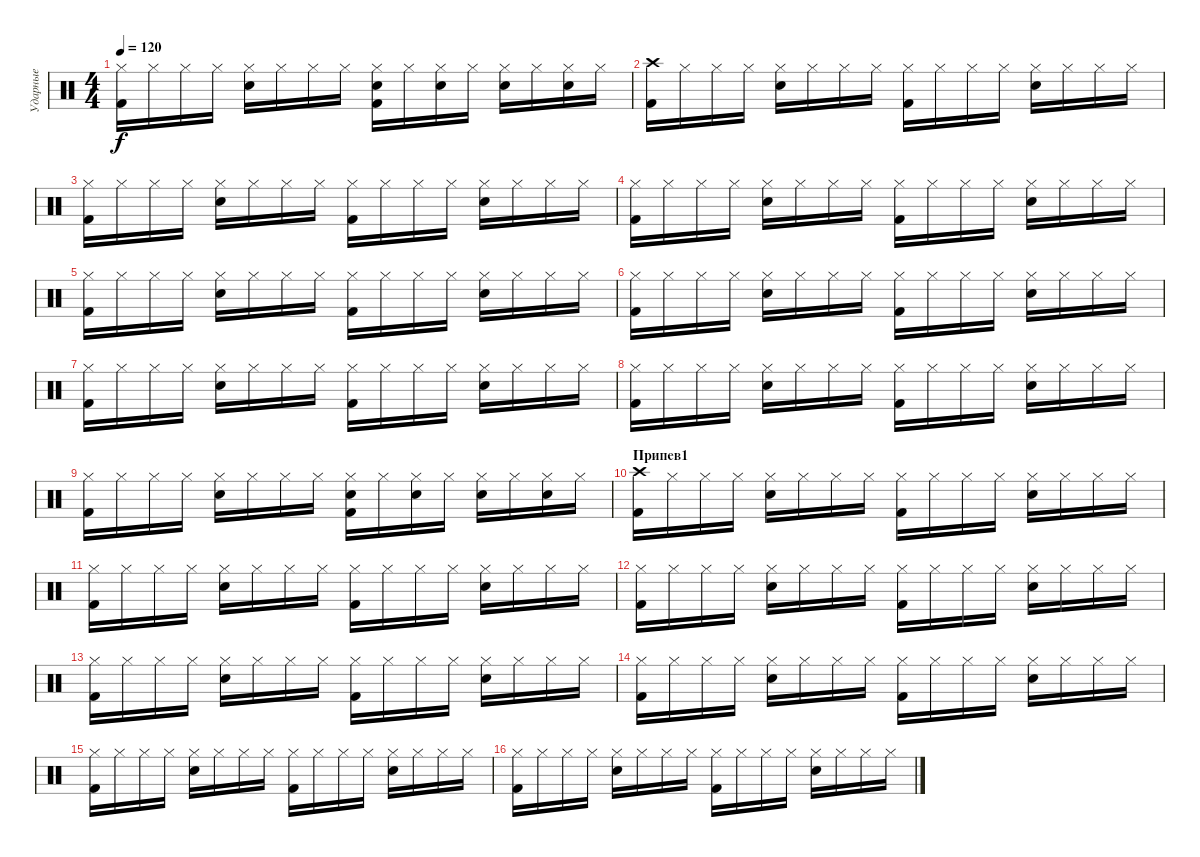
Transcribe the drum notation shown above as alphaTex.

\track ("Ударные" "Ударные") {instrument percussion}
\staff {score}
\articulation defaults
\ts (4 4)
\tempo 120
\clef neutral
\ks c
("Kick (hit) 2" "Hi-Hat (closed)").16{dy f} "Hi-Hat (closed)".16 "Hi-Hat (closed)".16 "Hi-Hat (closed)".16 ("Hi-Hat (closed)" "Snare (hit) 2").16 "Hi-Hat (closed)".16 "Hi-Hat (closed)".16 "Hi-Hat (closed)".16 ("Kick (hit) 2" "Hi-Hat (closed)" "Snare (hit) 2").16 "Hi-Hat (closed)".16 ("Hi-Hat (closed)" "Snare (hit) 2").16 "Hi-Hat (closed)".16 ("Hi-Hat (closed)" "Snare (hit) 2").16 "Hi-Hat (closed)".16 ("Hi-Hat (closed)" "Snare (hit) 2").16 "Hi-Hat (closed)".16 |
("Kick (hit) 2" "Crash high (hit)").16 "Hi-Hat (closed)".16 "Hi-Hat (closed)".16 "Hi-Hat (closed)".16 ("Hi-Hat (closed)" "Snare (hit) 2").16 "Hi-Hat (closed)".16 "Hi-Hat (closed)".16 "Hi-Hat (closed)".16 ("Kick (hit) 2" "Hi-Hat (closed)").16 "Hi-Hat (closed)".16 "Hi-Hat (closed)".16 "Hi-Hat (closed)".16 ("Hi-Hat (closed)" "Snare (hit) 2").16 "Hi-Hat (closed)".16 "Hi-Hat (closed)".16 "Hi-Hat (closed)".16 |
("Kick (hit) 2" "Hi-Hat (closed)").16 "Hi-Hat (closed)".16 "Hi-Hat (closed)".16 "Hi-Hat (closed)".16 ("Hi-Hat (closed)" "Snare (hit) 2").16 "Hi-Hat (closed)".16 "Hi-Hat (closed)".16 "Hi-Hat (closed)".16 ("Kick (hit) 2" "Hi-Hat (closed)").16 "Hi-Hat (closed)".16 "Hi-Hat (closed)".16 "Hi-Hat (closed)".16 ("Hi-Hat (closed)" "Snare (hit) 2").16 "Hi-Hat (closed)".16 "Hi-Hat (closed)".16 "Hi-Hat (closed)".16 |
("Kick (hit) 2" "Hi-Hat (closed)").16 "Hi-Hat (closed)".16 "Hi-Hat (closed)".16 "Hi-Hat (closed)".16 ("Hi-Hat (closed)" "Snare (hit) 2").16 "Hi-Hat (closed)".16 "Hi-Hat (closed)".16 "Hi-Hat (closed)".16 ("Kick (hit) 2" "Hi-Hat (closed)").16 "Hi-Hat (closed)".16 "Hi-Hat (closed)".16 "Hi-Hat (closed)".16 ("Hi-Hat (closed)" "Snare (hit) 2").16 "Hi-Hat (closed)".16 "Hi-Hat (closed)".16 "Hi-Hat (closed)".16 |
("Kick (hit) 2" "Hi-Hat (closed)").16 "Hi-Hat (closed)".16 "Hi-Hat (closed)".16 "Hi-Hat (closed)".16 ("Hi-Hat (closed)" "Snare (hit) 2").16 "Hi-Hat (closed)".16 "Hi-Hat (closed)".16 "Hi-Hat (closed)".16 ("Kick (hit) 2" "Hi-Hat (closed)").16 "Hi-Hat (closed)".16 "Hi-Hat (closed)".16 "Hi-Hat (closed)".16 ("Hi-Hat (closed)" "Snare (hit) 2").16 "Hi-Hat (closed)".16 "Hi-Hat (closed)".16 "Hi-Hat (closed)".16 |
("Kick (hit) 2" "Hi-Hat (closed)").16 "Hi-Hat (closed)".16 "Hi-Hat (closed)".16 "Hi-Hat (closed)".16 ("Hi-Hat (closed)" "Snare (hit) 2").16 "Hi-Hat (closed)".16 "Hi-Hat (closed)".16 "Hi-Hat (closed)".16 ("Kick (hit) 2" "Hi-Hat (closed)").16 "Hi-Hat (closed)".16 "Hi-Hat (closed)".16 "Hi-Hat (closed)".16 ("Hi-Hat (closed)" "Snare (hit) 2").16 "Hi-Hat (closed)".16 "Hi-Hat (closed)".16 "Hi-Hat (closed)".16 |
("Kick (hit) 2" "Hi-Hat (closed)").16 "Hi-Hat (closed)".16 "Hi-Hat (closed)".16 "Hi-Hat (closed)".16 ("Hi-Hat (closed)" "Snare (hit) 2").16 "Hi-Hat (closed)".16 "Hi-Hat (closed)".16 "Hi-Hat (closed)".16 ("Kick (hit) 2" "Hi-Hat (closed)").16 "Hi-Hat (closed)".16 "Hi-Hat (closed)".16 "Hi-Hat (closed)".16 ("Hi-Hat (closed)" "Snare (hit) 2").16 "Hi-Hat (closed)".16 "Hi-Hat (closed)".16 "Hi-Hat (closed)".16 |
("Kick (hit) 2" "Hi-Hat (closed)").16 "Hi-Hat (closed)".16 "Hi-Hat (closed)".16 "Hi-Hat (closed)".16 ("Hi-Hat (closed)" "Snare (hit) 2").16 "Hi-Hat (closed)".16 "Hi-Hat (closed)".16 "Hi-Hat (closed)".16 ("Kick (hit) 2" "Hi-Hat (closed)").16 "Hi-Hat (closed)".16 "Hi-Hat (closed)".16 "Hi-Hat (closed)".16 ("Hi-Hat (closed)" "Snare (hit) 2").16 "Hi-Hat (closed)".16 "Hi-Hat (closed)".16 "Hi-Hat (closed)".16 |
("Kick (hit) 2" "Hi-Hat (closed)").16 "Hi-Hat (closed)".16 "Hi-Hat (closed)".16 "Hi-Hat (closed)".16 ("Hi-Hat (closed)" "Snare (hit) 2").16 "Hi-Hat (closed)".16 "Hi-Hat (closed)".16 "Hi-Hat (closed)".16 ("Kick (hit) 2" "Hi-Hat (closed)" "Snare (hit) 2").16 "Hi-Hat (closed)".16 ("Hi-Hat (closed)" "Snare (hit) 2").16 "Hi-Hat (closed)".16 ("Hi-Hat (closed)" "Snare (hit) 2").16 "Hi-Hat (closed)".16 ("Hi-Hat (closed)" "Snare (hit) 2").16 "Hi-Hat (closed)".16 |
\section ("" "Припев1")
("Kick (hit) 2" "Crash high (hit)").16 "Hi-Hat (closed)".16 "Hi-Hat (closed)".16 "Hi-Hat (closed)".16 ("Hi-Hat (closed)" "Snare (hit) 2").16 "Hi-Hat (closed)".16 "Hi-Hat (closed)".16 "Hi-Hat (closed)".16 ("Kick (hit) 2" "Hi-Hat (closed)").16 "Hi-Hat (closed)".16 "Hi-Hat (closed)".16 "Hi-Hat (closed)".16 ("Hi-Hat (closed)" "Snare (hit) 2").16 "Hi-Hat (closed)".16 "Hi-Hat (closed)".16 "Hi-Hat (closed)".16 |
("Kick (hit) 2" "Hi-Hat (closed)").16 "Hi-Hat (closed)".16 "Hi-Hat (closed)".16 "Hi-Hat (closed)".16 ("Hi-Hat (closed)" "Snare (hit) 2").16 "Hi-Hat (closed)".16 "Hi-Hat (closed)".16 "Hi-Hat (closed)".16 ("Kick (hit) 2" "Hi-Hat (closed)").16 "Hi-Hat (closed)".16 "Hi-Hat (closed)".16 "Hi-Hat (closed)".16 ("Hi-Hat (closed)" "Snare (hit) 2").16 "Hi-Hat (closed)".16 "Hi-Hat (closed)".16 "Hi-Hat (closed)".16 |
("Kick (hit) 2" "Hi-Hat (closed)").16 "Hi-Hat (closed)".16 "Hi-Hat (closed)".16 "Hi-Hat (closed)".16 ("Hi-Hat (closed)" "Snare (hit) 2").16 "Hi-Hat (closed)".16 "Hi-Hat (closed)".16 "Hi-Hat (closed)".16 ("Kick (hit) 2" "Hi-Hat (closed)").16 "Hi-Hat (closed)".16 "Hi-Hat (closed)".16 "Hi-Hat (closed)".16 ("Hi-Hat (closed)" "Snare (hit) 2").16 "Hi-Hat (closed)".16 "Hi-Hat (closed)".16 "Hi-Hat (closed)".16 |
("Kick (hit) 2" "Hi-Hat (closed)").16 "Hi-Hat (closed)".16 "Hi-Hat (closed)".16 "Hi-Hat (closed)".16 ("Hi-Hat (closed)" "Snare (hit) 2").16 "Hi-Hat (closed)".16 "Hi-Hat (closed)".16 "Hi-Hat (closed)".16 ("Kick (hit) 2" "Hi-Hat (closed)").16 "Hi-Hat (closed)".16 "Hi-Hat (closed)".16 "Hi-Hat (closed)".16 ("Hi-Hat (closed)" "Snare (hit) 2").16 "Hi-Hat (closed)".16 "Hi-Hat (closed)".16 "Hi-Hat (closed)".16 |
("Kick (hit) 2" "Hi-Hat (closed)").16 "Hi-Hat (closed)".16 "Hi-Hat (closed)".16 "Hi-Hat (closed)".16 ("Hi-Hat (closed)" "Snare (hit) 2").16 "Hi-Hat (closed)".16 "Hi-Hat (closed)".16 "Hi-Hat (closed)".16 ("Kick (hit) 2" "Hi-Hat (closed)").16 "Hi-Hat (closed)".16 "Hi-Hat (closed)".16 "Hi-Hat (closed)".16 ("Hi-Hat (closed)" "Snare (hit) 2").16 "Hi-Hat (closed)".16 "Hi-Hat (closed)".16 "Hi-Hat (closed)".16 |
("Kick (hit) 2" "Hi-Hat (closed)").16 "Hi-Hat (closed)".16 "Hi-Hat (closed)".16 "Hi-Hat (closed)".16 ("Hi-Hat (closed)" "Snare (hit) 2").16 "Hi-Hat (closed)".16 "Hi-Hat (closed)".16 "Hi-Hat (closed)".16 ("Kick (hit) 2" "Hi-Hat (closed)").16 "Hi-Hat (closed)".16 "Hi-Hat (closed)".16 "Hi-Hat (closed)".16 ("Hi-Hat (closed)" "Snare (hit) 2").16 "Hi-Hat (closed)".16 "Hi-Hat (closed)".16 "Hi-Hat (closed)".16 |
("Kick (hit) 2" "Hi-Hat (closed)").16 "Hi-Hat (closed)".16 "Hi-Hat (closed)".16 "Hi-Hat (closed)".16 ("Hi-Hat (closed)" "Snare (hit) 2").16 "Hi-Hat (closed)".16 "Hi-Hat (closed)".16 "Hi-Hat (closed)".16 ("Kick (hit) 2" "Hi-Hat (closed)").16 "Hi-Hat (closed)".16 "Hi-Hat (closed)".16 "Hi-Hat (closed)".16 ("Hi-Hat (closed)" "Snare (hit) 2").16 "Hi-Hat (closed)".16 "Hi-Hat (closed)".16 "Hi-Hat (closed)".16
